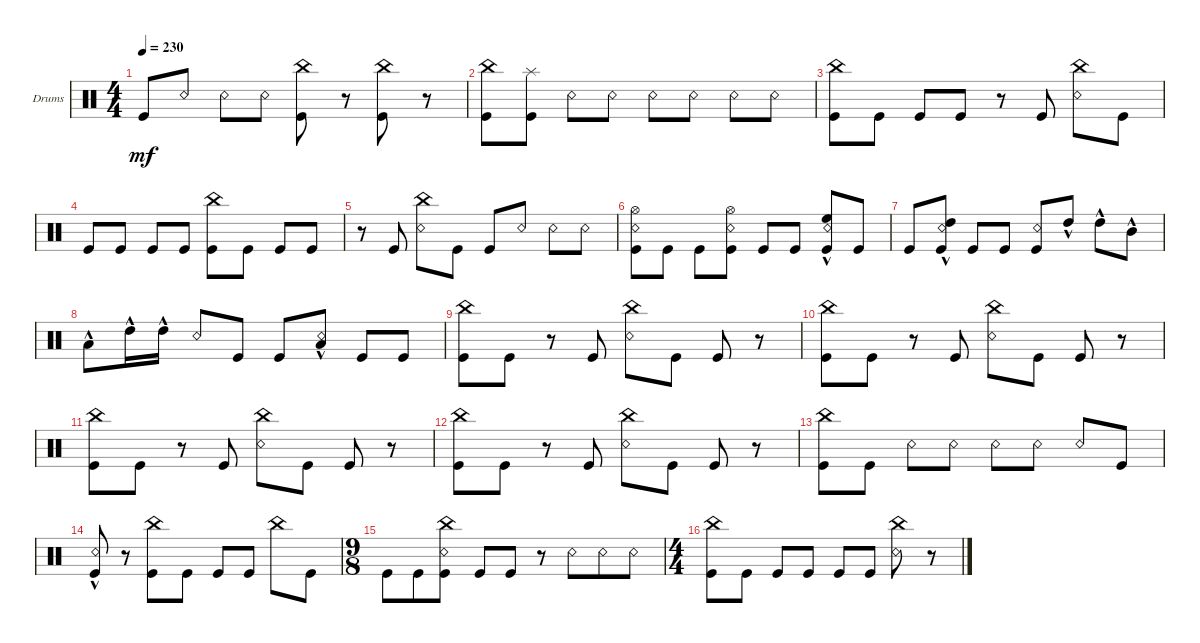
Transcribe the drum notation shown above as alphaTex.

\bracketExtendMode groupsimilarinstruments
\firstSystemTrackNameOrientation horizontal
\otherSystemsTrackNameOrientation horizontal
\track ("Drumkit" "Drums") {instrument percussion}
\staff {score}
\articulation defaults
\ts (4 4)
\tempo 230
\clef neutral
\ks c "Kick (hit)".8{dy mf} "Snare (rim shot)".8 "Snare (rim shot)".8 "Snare (rim shot)".8
("China (hit)" "Kick (hit)").8 r.8 ("Kick (hit)" "China (hit)").8 r.8 |
("Kick (hit)" "China (hit)").8 ("Kick (hit)" "Splash (hit)").8 "Snare (rim shot)".8 "Snare (rim shot)".8 "Snare (rim shot)".8 "Snare (rim shot)".8 "Snare (rim shot)".8 "Snare (rim shot)".8 |
("Kick (hit)" "China (hit)").8 "Kick (hit)".8 "Kick (hit)".8 "Kick (hit)".8 r.8 "Kick (hit)".8 ("China (hit)" "Snare (rim shot)").8 "Kick (hit)".8 |
"Kick (hit)".8 "Kick (hit)".8 "Kick (hit)".8 "Kick (hit)".8 ("Kick (hit)" "China (hit)").8 "Kick (hit)".8 "Kick (hit)".8 "Kick (hit)".8 |
r.8 "Kick (hit)".8 ("Snare (rim shot)" "China (hit)").8 "Kick (hit)".8 "Kick (hit)".8 "Snare (rim shot)".8 "Snare (rim shot)".8 "Snare (rim shot)".8 |
("Kick (hit)" "Hi-Hat (open)" "Snare (rim shot)").8 "Kick (hit)".8 "Kick (hit)".8 ("Kick (hit)" "Snare (rim shot)" "Hi-Hat (open)").8 "Kick (hit)".8 "Kick (hit)".8 ("Kick (hit)" "Snare (rim shot)" "High Floor Tom (hit)"{hac}).8 "Kick (hit)".8 |
"Kick (hit)".8 ("Kick (hit)" "Snare (rim shot)" "High Tom (hit)"{hac}).8 "Kick (hit)".8 "Kick (hit)".8 ("Kick (hit)" "Snare (rim shot)").8 "High Tom (hit)"{hac}.8 "High Tom (hit)"{hac}.8 "Mid Tom (hit)"{hac}.8 |
"Low Tom (hit)"{hac}.8 "High Tom (hit)"{hac}.16 "High Tom (hit)"{hac}.16 "Snare (rim shot)".8 "Kick (hit)".8 "Kick (hit)".8 ("Low Tom (hit)"{hac} "Snare (rim shot)").8 "Kick (hit)".8 "Kick (hit)".8 |
("Kick (hit)" "China (hit)").8 "Kick (hit)".8 r.8 "Kick (hit)".8 ("Snare (rim shot)" "China (hit)").8 "Kick (hit)".8 "Kick (hit)".8 r.8 |
("Kick (hit)" "China (hit)").8 "Kick (hit)".8 r.8 "Kick (hit)".8 ("Snare (rim shot)" "China (hit)").8 "Kick (hit)".8 "Kick (hit)".8 r.8 |
("Kick (hit)" "China (hit)").8 "Kick (hit)".8 r.8 "Kick (hit)".8 ("Snare (rim shot)" "China (hit)").8 "Kick (hit)".8 "Kick (hit)".8 r.8 |
("Kick (hit)" "China (hit)").8 "Kick (hit)".8 r.8 "Kick (hit)".8 ("Snare (rim shot)" "China (hit)").8 "Kick (hit)".8 "Kick (hit)".8 r.8 |
("Kick (hit)" "China (hit)").8 "Kick (hit)".8 "Snare (rim shot)".8 "Snare (rim shot)".8 "Snare (rim shot)".8 "Snare (rim shot)".8 "Snare (rim shot)".8 "Kick (hit)".8 |
("Snare (rim shot)" "Kick (hit)"{hac}).8 r.8 ("Kick (hit)" "China (hit)").8 "Kick (hit)".8 "Kick (hit)".8 "Kick (hit)".8 "China (hit)".8 "Kick (hit)".8 |
\ts (9 8)
"Kick (hit)".8 "Kick (hit)".8 ("Kick (hit)" "Snare (rim shot)" "China (hit)").8 "Kick (hit)".8 "Kick (hit)".8 r.8 "Snare (rim shot)".8 "Snare (rim shot)".8 "Snare (rim shot)".8 |
\ts (4 4)
("Kick (hit)" "China (hit)").8 "Kick (hit)".8 "Kick (hit)".8 "Kick (hit)".8 "Kick (hit)".8 "Kick (hit)".8 ("Snare (rim shot)" "China (hit)").8 r.8
